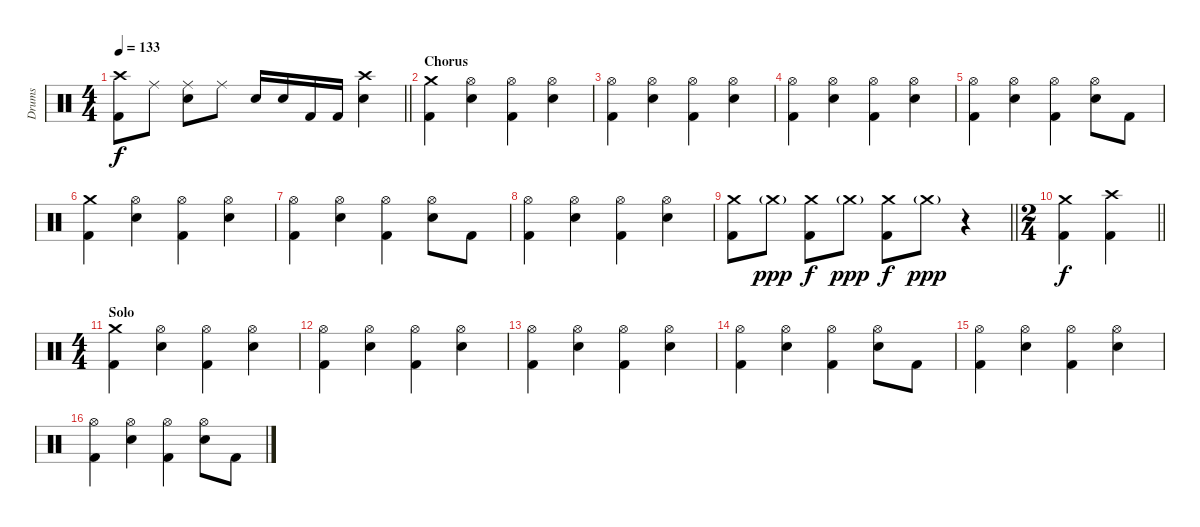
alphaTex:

\track ("Drums" "Drums") {instrument percussion}
\staff {score}
\articulation defaults
\ts (4 4)
\tempo 133
\clef neutral
\barLineRight lightlight
\ks c
("Crash high (hit)" "Kick (hit) 2").8{dy f} "Ride (middle)".8 ("Ride (middle)" "Snare (hit) 2").8 "Ride (middle)".8 "Snare (hit) 2".16 "Snare (hit) 2".16 "Kick (hit) 2".16 "Kick (hit) 2".16 ("Crash high (hit)" "Snare (hit) 2").4 |
\section ("" "Chorus")
("Crash medium (hit)" "Kick (hit) 2").4 ("Hi-Hat (open)" "Snare (hit) 2").4 ("Hi-Hat (open)" "Kick (hit) 2").4 ("Hi-Hat (open)" "Snare (hit) 2").4 |
("Hi-Hat (open)" "Kick (hit) 2").4 ("Hi-Hat (open)" "Snare (hit) 2").4 ("Hi-Hat (open)" "Kick (hit) 2").4 ("Hi-Hat (open)" "Snare (hit) 2").4 |
("Hi-Hat (open)" "Kick (hit) 2").4 ("Hi-Hat (open)" "Snare (hit) 2").4 ("Hi-Hat (open)" "Kick (hit) 2").4 ("Hi-Hat (open)" "Snare (hit) 2").4 |
("Hi-Hat (open)" "Kick (hit) 2").4 ("Hi-Hat (open)" "Snare (hit) 2").4 ("Hi-Hat (open)" "Kick (hit) 2").4 ("Hi-Hat (open)" "Snare (hit) 2").8 "Kick (hit) 2".8 |
("Crash medium (hit)" "Kick (hit) 2").4 ("Hi-Hat (open)" "Snare (hit) 2").4 ("Hi-Hat (open)" "Kick (hit) 2").4 ("Hi-Hat (open)" "Snare (hit) 2").4 |
("Hi-Hat (open)" "Kick (hit) 2").4 ("Hi-Hat (open)" "Snare (hit) 2").4 ("Hi-Hat (open)" "Kick (hit) 2").4 ("Hi-Hat (open)" "Snare (hit) 2").8 "Kick (hit) 2".8 |
("Hi-Hat (open)" "Kick (hit) 2").4 ("Hi-Hat (open)" "Snare (hit) 2").4 ("Hi-Hat (open)" "Kick (hit) 2").4 ("Hi-Hat (open)" "Snare (hit) 2").4 |
\barLineRight lightlight
("Crash medium (hit)" "Kick (hit) 2").8 "Crash medium (hit)"{g}.8{dy ppp} ("Crash medium (hit)" "Kick (hit) 2").8{dy f} "Crash medium (hit)"{g}.8{dy ppp} ("Crash medium (hit)" "Kick (hit) 2").8{dy f} "Crash medium (hit)"{g}.8{dy ppp} r.4 |
\ts (2 4)
\barLineRight lightlight
("Crash medium (hit)" "Kick (hit) 2").4{dy f} ("Crash high (hit)" "Kick (hit) 2").4 |
\ts (4 4)
\section ("" "Solo")
("Crash medium (hit)" "Kick (hit) 2").4 ("Hi-Hat (open)" "Snare (hit) 2").4 ("Hi-Hat (open)" "Kick (hit) 2").4 ("Hi-Hat (open)" "Snare (hit) 2").4 |
("Hi-Hat (open)" "Kick (hit) 2").4 ("Hi-Hat (open)" "Snare (hit) 2").4 ("Hi-Hat (open)" "Kick (hit) 2").4 ("Hi-Hat (open)" "Snare (hit) 2").4 |
("Hi-Hat (open)" "Kick (hit) 2").4 ("Hi-Hat (open)" "Snare (hit) 2").4 ("Hi-Hat (open)" "Kick (hit) 2").4 ("Hi-Hat (open)" "Snare (hit) 2").4 |
("Hi-Hat (open)" "Kick (hit) 2").4 ("Hi-Hat (open)" "Snare (hit) 2").4 ("Hi-Hat (open)" "Kick (hit) 2").4 ("Hi-Hat (open)" "Snare (hit) 2").8 "Kick (hit) 2".8 |
("Hi-Hat (open)" "Kick (hit) 2").4 ("Hi-Hat (open)" "Snare (hit) 2").4 ("Hi-Hat (open)" "Kick (hit) 2").4 ("Hi-Hat (open)" "Snare (hit) 2").4 |
("Hi-Hat (open)" "Kick (hit) 2").4 ("Hi-Hat (open)" "Snare (hit) 2").4 ("Hi-Hat (open)" "Kick (hit) 2").4 ("Hi-Hat (open)" "Snare (hit) 2").8 "Kick (hit) 2".8
